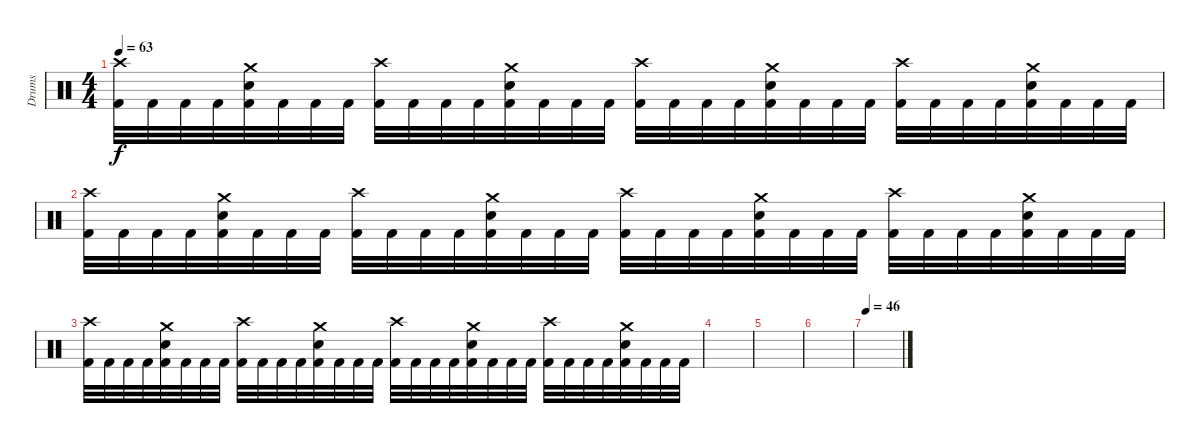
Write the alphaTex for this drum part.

\track ("Drums" "Drums") {instrument percussion}
\staff {score}
\articulation defaults
\ts (4 4)
\tempo 63
\clef neutral
\ks c
("Crash high (hit)" "Kick (hit) 2").32{dy f} "Kick (hit) 2".32 "Kick (hit) 2".32 "Kick (hit) 2".32 ("Crash medium (hit)" "Electric Snare (hit)" "Kick (hit) 2").32 "Kick (hit) 2".32 "Kick (hit) 2".32 "Kick (hit) 2".32 ("Crash high (hit)" "Kick (hit) 2").32 "Kick (hit) 2".32 "Kick (hit) 2".32 "Kick (hit) 2".32 ("Crash medium (hit)" "Electric Snare (hit)" "Kick (hit) 2").32 "Kick (hit) 2".32 "Kick (hit) 2".32 "Kick (hit) 2".32 ("Crash high (hit)" "Kick (hit) 2").32 "Kick (hit) 2".32 "Kick (hit) 2".32 "Kick (hit) 2".32 ("Crash medium (hit)" "Electric Snare (hit)" "Kick (hit) 2").32 "Kick (hit) 2".32 "Kick (hit) 2".32 "Kick (hit) 2".32 ("Crash high (hit)" "Kick (hit) 2").32 "Kick (hit) 2".32 "Kick (hit) 2".32 "Kick (hit) 2".32 ("Crash medium (hit)" "Electric Snare (hit)" "Kick (hit) 2").32 "Kick (hit) 2".32 "Kick (hit) 2".32 "Kick (hit) 2".32 |
("Crash high (hit)" "Kick (hit) 2").32 "Kick (hit) 2".32 "Kick (hit) 2".32 "Kick (hit) 2".32 ("Crash medium (hit)" "Electric Snare (hit)" "Kick (hit) 2").32 "Kick (hit) 2".32 "Kick (hit) 2".32 "Kick (hit) 2".32 ("Crash high (hit)" "Kick (hit) 2").32 "Kick (hit) 2".32 "Kick (hit) 2".32 "Kick (hit) 2".32 ("Crash medium (hit)" "Electric Snare (hit)" "Kick (hit) 2").32 "Kick (hit) 2".32 "Kick (hit) 2".32 "Kick (hit) 2".32 ("Crash high (hit)" "Kick (hit) 2").32 "Kick (hit) 2".32 "Kick (hit) 2".32 "Kick (hit) 2".32 ("Crash medium (hit)" "Electric Snare (hit)" "Kick (hit) 2").32 "Kick (hit) 2".32 "Kick (hit) 2".32 "Kick (hit) 2".32 ("Crash high (hit)" "Kick (hit) 2").32 "Kick (hit) 2".32 "Kick (hit) 2".32 "Kick (hit) 2".32 ("Crash medium (hit)" "Electric Snare (hit)" "Kick (hit) 2").32 "Kick (hit) 2".32 "Kick (hit) 2".32 "Kick (hit) 2".32 |
("Crash high (hit)" "Kick (hit) 2").32 "Kick (hit) 2".32 "Kick (hit) 2".32 "Kick (hit) 2".32 ("Crash medium (hit)" "Electric Snare (hit)" "Kick (hit) 2").32 "Kick (hit) 2".32 "Kick (hit) 2".32 "Kick (hit) 2".32 ("Crash high (hit)" "Kick (hit) 2").32 "Kick (hit) 2".32 "Kick (hit) 2".32 "Kick (hit) 2".32 ("Crash medium (hit)" "Electric Snare (hit)" "Kick (hit) 2").32 "Kick (hit) 2".32 "Kick (hit) 2".32 "Kick (hit) 2".32 ("Crash high (hit)" "Kick (hit) 2").32 "Kick (hit) 2".32 "Kick (hit) 2".32 "Kick (hit) 2".32 ("Crash medium (hit)" "Electric Snare (hit)" "Kick (hit) 2").32 "Kick (hit) 2".32 "Kick (hit) 2".32 "Kick (hit) 2".32 ("Crash high (hit)" "Kick (hit) 2").32 "Kick (hit) 2".32 "Kick (hit) 2".32 "Kick (hit) 2".32 ("Crash medium (hit)" "Electric Snare (hit)" "Kick (hit) 2").32 "Kick (hit) 2".32 "Kick (hit) 2".32 "Kick (hit) 2".32 |
|
|
|
\tempo 46
